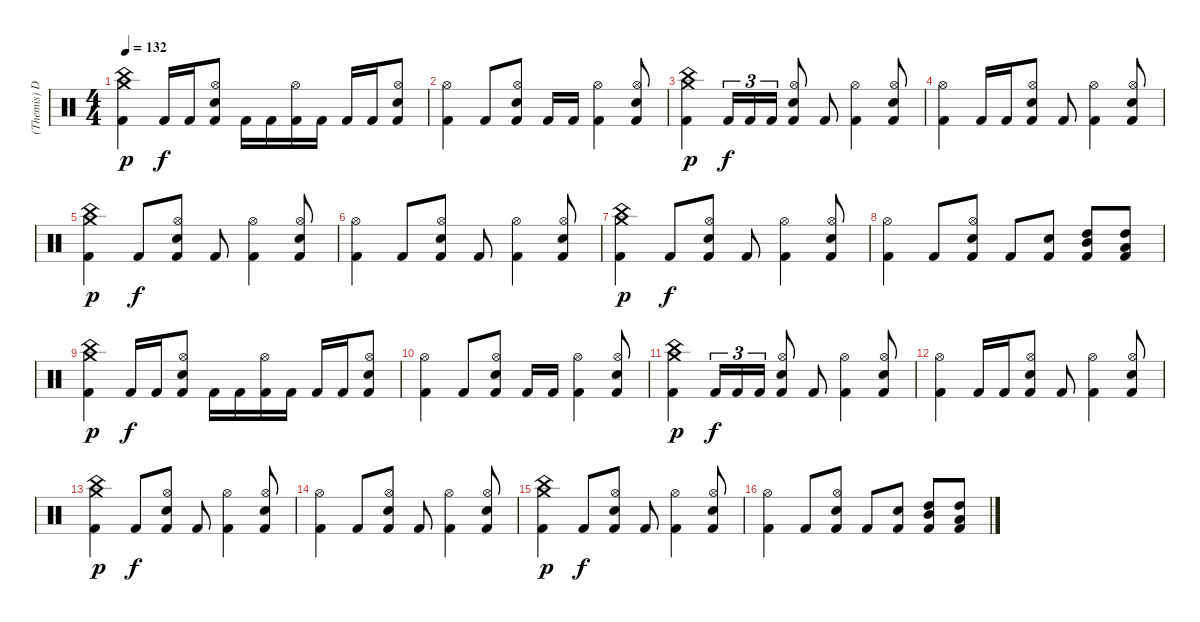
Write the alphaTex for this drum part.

\track ("(Themis) Drums" "(Themis) D") {instrument percussion}
\staff {score}
\articulation defaults
\ts (4 4)
\tempo 132
\clef neutral
\ks c
("Crash medium (hit)" "China (hit)" "Kick (hit) 2").4{dy p} "Kick (hit) 2".16{dy f} "Kick (hit) 2".16 ("Hi-Hat (open)" "Electric Snare (hit)" "Kick (hit) 2").8 "Kick (hit) 2".16 "Kick (hit) 2".16 ("Hi-Hat (open)" "Kick (hit) 2").16 "Kick (hit) 2".16 "Kick (hit) 2".16 "Kick (hit) 2".16 ("Hi-Hat (open)" "Electric Snare (hit)" "Kick (hit) 2").8 |
("Hi-Hat (open)" "Kick (hit) 2").4 "Kick (hit) 2".8 ("Hi-Hat (open)" "Electric Snare (hit)" "Kick (hit) 2").8 "Kick (hit) 2".16 "Kick (hit) 2".16 ("Hi-Hat (open)" "Kick (hit) 2").4 ("Hi-Hat (open)" "Electric Snare (hit)" "Kick (hit) 2").8 |
("Crash medium (hit)" "China (hit)" "Kick (hit) 2").4{dy p} "Kick (hit) 2".16{tu (3 2) dy f} "Kick (hit) 2".16{tu (3 2)} "Kick (hit) 2".16{tu (3 2)} ("Hi-Hat (open)" "Electric Snare (hit)" "Kick (hit) 2").8 "Kick (hit) 2".8 ("Hi-Hat (open)" "Kick (hit) 2").4 ("Hi-Hat (open)" "Electric Snare (hit)" "Kick (hit) 2").8 |
("Hi-Hat (open)" "Kick (hit) 2").4 "Kick (hit) 2".16 "Kick (hit) 2".16 ("Hi-Hat (open)" "Electric Snare (hit)" "Kick (hit) 2").8 "Kick (hit) 2".8 ("Hi-Hat (open)" "Kick (hit) 2").4 ("Hi-Hat (open)" "Electric Snare (hit)" "Kick (hit) 2").8 |
("Crash medium (hit)" "China (hit)" "Kick (hit) 2").4{dy p} "Kick (hit) 2".8{dy f} ("Hi-Hat (open)" "Electric Snare (hit)" "Kick (hit) 2").8 "Kick (hit) 2".8 ("Hi-Hat (open)" "Kick (hit) 2").4 ("Hi-Hat (open)" "Electric Snare (hit)" "Kick (hit) 2").8 |
("Hi-Hat (open)" "Kick (hit) 2").4 "Kick (hit) 2".8 ("Hi-Hat (open)" "Electric Snare (hit)" "Kick (hit) 2").8 "Kick (hit) 2".8 ("Hi-Hat (open)" "Kick (hit) 2").4 ("Hi-Hat (open)" "Electric Snare (hit)" "Kick (hit) 2").8 |
("Crash medium (hit)" "China (hit)" "Kick (hit) 2").4{dy p} "Kick (hit) 2".8{dy f} ("Hi-Hat (open)" "Electric Snare (hit)" "Kick (hit) 2").8 "Kick (hit) 2".8 ("Hi-Hat (open)" "Kick (hit) 2").4 ("Hi-Hat (open)" "Electric Snare (hit)" "Kick (hit) 2").8 |
("Hi-Hat (open)" "Kick (hit) 2").4 "Kick (hit) 2".8 ("Hi-Hat (open)" "Electric Snare (hit)" "Kick (hit) 2").8 "Kick (hit) 2".8 ("Electric Snare (hit)" "Kick (hit) 2").8 ("Mid Tom (hit)" "High Tom (hit)" "Kick (hit) 2").8 ("High Tom (hit)" "Low Tom (hit)" "Kick (hit) 2").8 |
("Crash medium (hit)" "China (hit)" "Kick (hit) 2").4{dy p} "Kick (hit) 2".16{dy f} "Kick (hit) 2".16 ("Hi-Hat (open)" "Electric Snare (hit)" "Kick (hit) 2").8 "Kick (hit) 2".16 "Kick (hit) 2".16 ("Hi-Hat (open)" "Kick (hit) 2").16 "Kick (hit) 2".16 "Kick (hit) 2".16 "Kick (hit) 2".16 ("Hi-Hat (open)" "Electric Snare (hit)" "Kick (hit) 2").8 |
("Hi-Hat (open)" "Kick (hit) 2").4 "Kick (hit) 2".8 ("Hi-Hat (open)" "Electric Snare (hit)" "Kick (hit) 2").8 "Kick (hit) 2".16 "Kick (hit) 2".16 ("Hi-Hat (open)" "Kick (hit) 2").4 ("Hi-Hat (open)" "Electric Snare (hit)" "Kick (hit) 2").8 |
("Crash medium (hit)" "China (hit)" "Kick (hit) 2").4{dy p} "Kick (hit) 2".16{tu (3 2) dy f} "Kick (hit) 2".16{tu (3 2)} "Kick (hit) 2".16{tu (3 2)} ("Hi-Hat (open)" "Electric Snare (hit)" "Kick (hit) 2").8 "Kick (hit) 2".8 ("Hi-Hat (open)" "Kick (hit) 2").4 ("Hi-Hat (open)" "Electric Snare (hit)" "Kick (hit) 2").8 |
("Hi-Hat (open)" "Kick (hit) 2").4 "Kick (hit) 2".16 "Kick (hit) 2".16 ("Hi-Hat (open)" "Electric Snare (hit)" "Kick (hit) 2").8 "Kick (hit) 2".8 ("Hi-Hat (open)" "Kick (hit) 2").4 ("Hi-Hat (open)" "Electric Snare (hit)" "Kick (hit) 2").8 |
("Crash medium (hit)" "China (hit)" "Kick (hit) 2").4{dy p} "Kick (hit) 2".8{dy f} ("Hi-Hat (open)" "Electric Snare (hit)" "Kick (hit) 2").8 "Kick (hit) 2".8 ("Hi-Hat (open)" "Kick (hit) 2").4 ("Hi-Hat (open)" "Electric Snare (hit)" "Kick (hit) 2").8 |
("Hi-Hat (open)" "Kick (hit) 2").4 "Kick (hit) 2".8 ("Hi-Hat (open)" "Electric Snare (hit)" "Kick (hit) 2").8 "Kick (hit) 2".8 ("Hi-Hat (open)" "Kick (hit) 2").4 ("Hi-Hat (open)" "Electric Snare (hit)" "Kick (hit) 2").8 |
("Crash medium (hit)" "China (hit)" "Kick (hit) 2").4{dy p} "Kick (hit) 2".8{dy f} ("Hi-Hat (open)" "Electric Snare (hit)" "Kick (hit) 2").8 "Kick (hit) 2".8 ("Hi-Hat (open)" "Kick (hit) 2").4 ("Hi-Hat (open)" "Electric Snare (hit)" "Kick (hit) 2").8 |
("Hi-Hat (open)" "Kick (hit) 2").4 "Kick (hit) 2".8 ("Hi-Hat (open)" "Electric Snare (hit)" "Kick (hit) 2").8 "Kick (hit) 2".8 ("Electric Snare (hit)" "Kick (hit) 2").8 ("Mid Tom (hit)" "High Tom (hit)" "Kick (hit) 2").8 ("High Tom (hit)" "Low Tom (hit)" "Kick (hit) 2").8
